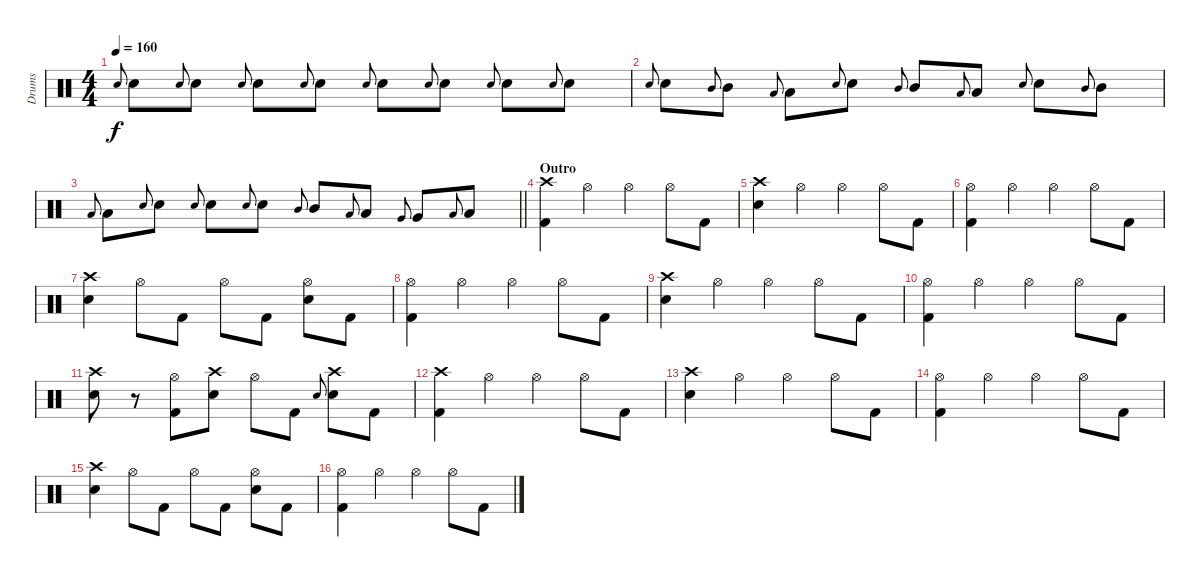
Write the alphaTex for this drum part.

\track ("Drums" "Drums") {instrument percussion}
\staff {score}
\articulation defaults
\ts (4 4)
\tempo 160
\clef neutral
\ks c "Electric Snare (hit)".8{gr onbeat dy f} "Electric Snare (hit)".8 "Electric Snare (hit)".8{gr onbeat} "Electric Snare (hit)".8 "Electric Snare (hit)".8{gr onbeat} "Electric Snare (hit)".8 "Electric Snare (hit)".8{gr onbeat} "Electric Snare (hit)".8 "Electric Snare (hit)".8{gr onbeat} "Electric Snare (hit)".8 "Electric Snare (hit)".8{gr onbeat} "Electric Snare (hit)".8 "Electric Snare (hit)".8{gr onbeat} "Electric Snare (hit)".8 "Electric Snare (hit)".8{gr onbeat} "Electric Snare (hit)".8
|
"Electric Snare (hit)".8{gr onbeat} "Electric Snare (hit)".8 "Mid Tom (hit)".8{gr onbeat} "Mid Tom (hit)".8 "Low Tom (hit)".8{gr onbeat} "Low Tom (hit)".8 "Electric Snare (hit)".8{gr onbeat} "Electric Snare (hit)".8 "Mid Tom (hit)".8{gr onbeat} "Mid Tom (hit)".8 "Low Tom (hit)".8{gr onbeat} "Low Tom (hit)".8 "Electric Snare (hit)".8{gr onbeat} "Electric Snare (hit)".8 "Mid Tom (hit)".8{gr onbeat} "Mid Tom (hit)".8 |
\barLineRight lightlight "Low Tom (hit)".8{gr onbeat} "Low Tom (hit)".8 "Electric Snare (hit)".8{gr onbeat} "Electric Snare (hit)".8 "Electric Snare (hit)".8{gr onbeat} "Electric Snare (hit)".8 "Electric Snare (hit)".8{gr onbeat} "Electric Snare (hit)".8 "Mid Tom (hit)".8{gr onbeat} "Mid Tom (hit)".8 "Low Tom (hit)".8{gr onbeat} "Low Tom (hit)".8 "Very Low Tom (hit)".8{gr onbeat} "Very Low Tom (hit)".8 "Low Floor Tom (hit)".8{gr onbeat} "Low Floor Tom (hit)".8
|
\section ("" "Outro")
("Kick (hit) 2" "Crash high (hit)").4 "Hi-Hat (open)".4 "Hi-Hat (open)".4 "Hi-Hat (open)".8 "Kick (hit) 2".8 |
("Electric Snare (hit)" "Crash high (hit)").4 "Hi-Hat (open)".4 "Hi-Hat (open)".4 "Hi-Hat (open)".8 "Kick (hit) 2".8 |
("Hi-Hat (open)" "Kick (hit) 2").4 "Hi-Hat (open)".4 "Hi-Hat (open)".4 "Hi-Hat (open)".8 "Kick (hit) 2".8 |
("Electric Snare (hit)" "Crash high (hit)").4 "Hi-Hat (open)".8 "Kick (hit) 2".8 "Hi-Hat (open)".8 "Kick (hit) 2".8 ("Hi-Hat (open)" "Electric Snare (hit)").8 "Kick (hit) 2".8 |
("Hi-Hat (open)" "Kick (hit) 2").4 "Hi-Hat (open)".4 "Hi-Hat (open)".4 "Hi-Hat (open)".8 "Kick (hit) 2".8 |
("Electric Snare (hit)" "Crash high (hit)").4 "Hi-Hat (open)".4 "Hi-Hat (open)".4 "Hi-Hat (open)".8 "Kick (hit) 2".8 |
("Hi-Hat (open)" "Kick (hit) 2").4 "Hi-Hat (open)".4 "Hi-Hat (open)".4 "Hi-Hat (open)".8 "Kick (hit) 2".8 |
("Electric Snare (hit)" "Crash high (hit)").8 r.8 ("Hi-Hat (open)" "Kick (hit) 2").8 ("Electric Snare (hit)" "Crash high (hit)").8 "Hi-Hat (open)".8 "Kick (hit) 2".8 "Electric Snare (hit)".8{gr onbeat} ("Electric Snare (hit)" "Crash high (hit)").8 "Kick (hit) 2".8 |
("Kick (hit) 2" "Crash high (hit)").4 "Hi-Hat (open)".4 "Hi-Hat (open)".4 "Hi-Hat (open)".8 "Kick (hit) 2".8 |
("Electric Snare (hit)" "Crash high (hit)").4 "Hi-Hat (open)".4 "Hi-Hat (open)".4 "Hi-Hat (open)".8 "Kick (hit) 2".8 |
("Hi-Hat (open)" "Kick (hit) 2").4 "Hi-Hat (open)".4 "Hi-Hat (open)".4 "Hi-Hat (open)".8 "Kick (hit) 2".8 |
("Electric Snare (hit)" "Crash high (hit)").4 "Hi-Hat (open)".8 "Kick (hit) 2".8 "Hi-Hat (open)".8 "Kick (hit) 2".8 ("Hi-Hat (open)" "Electric Snare (hit)").8 "Kick (hit) 2".8 |
("Hi-Hat (open)" "Kick (hit) 2").4 "Hi-Hat (open)".4 "Hi-Hat (open)".4 "Hi-Hat (open)".8 "Kick (hit) 2".8
